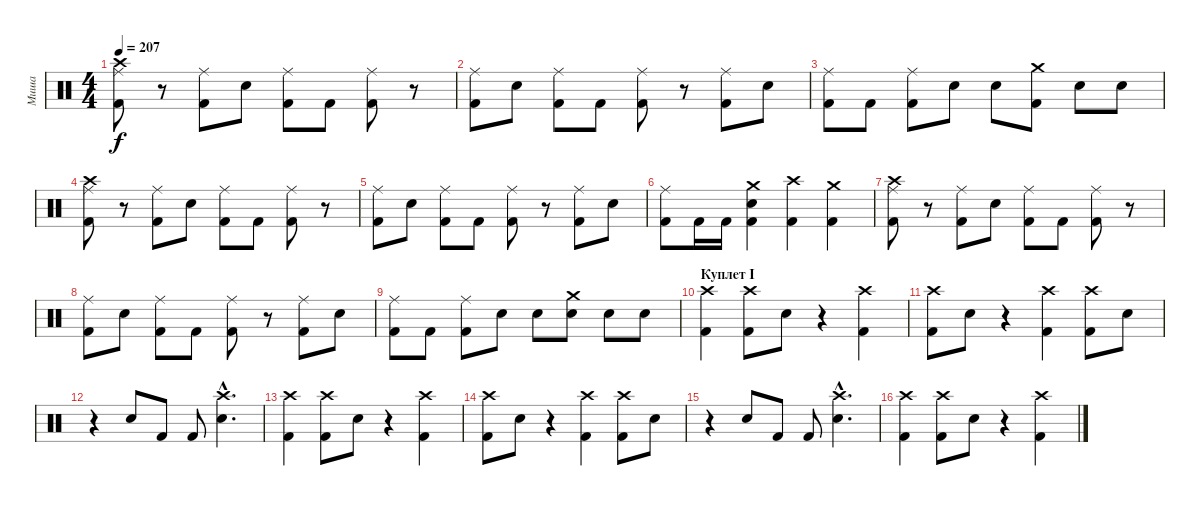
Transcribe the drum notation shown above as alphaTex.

\track ("Миша" "Миша") {instrument percussion}
\staff {score}
\articulation defaults
\ts (4 4)
\tempo 207
\clef neutral
\ks c
("Kick (hit) 2" "Ride (middle)" "Crash high (hit)").8{dy f} r.8 ("Kick (hit) 2" "Ride (middle)").8 "Snare (hit) 2".8 ("Kick (hit) 2" "Ride (middle)").8 "Kick (hit) 2".8 ("Kick (hit) 2" "Ride (middle)").8 r.8 |
("Kick (hit) 2" "Ride (middle)").8 "Snare (hit) 2".8 ("Kick (hit) 2" "Ride (middle)").8 "Kick (hit) 2".8 ("Kick (hit) 2" "Ride (middle)").8 r.8 ("Kick (hit) 2" "Ride (middle)").8 "Snare (hit) 2".8 |
("Kick (hit) 2" "Ride (middle)").8 "Kick (hit) 2".8 ("Kick (hit) 2" "Ride (middle)").8 "Snare (hit) 2".8 "Snare (hit) 2".8 ("Kick (hit) 2" "Crash medium (hit)").8 "Snare (hit) 2".8 "Snare (hit) 2".8 |
("Kick (hit) 2" "Ride (middle)" "Crash high (hit)").8 r.8 ("Kick (hit) 2" "Ride (middle)").8 "Snare (hit) 2".8 ("Kick (hit) 2" "Ride (middle)").8 "Kick (hit) 2".8 ("Kick (hit) 2" "Ride (middle)").8 r.8 |
("Kick (hit) 2" "Ride (middle)").8 "Snare (hit) 2".8 ("Kick (hit) 2" "Ride (middle)").8 "Kick (hit) 2".8 ("Kick (hit) 2" "Ride (middle)").8 r.8 ("Kick (hit) 2" "Ride (middle)").8 "Snare (hit) 2".8 |
("Kick (hit) 2" "Ride (middle)").8 "Kick (hit) 2".16 "Kick (hit) 2".16 ("Kick (hit) 2" "Snare (hit) 2" "Crash medium (hit)").4 ("Kick (hit) 2" "Crash high (hit)").4 ("Kick (hit) 2" "Crash medium (hit)").4 |
("Kick (hit) 2" "Ride (middle)" "Crash high (hit)").8 r.8 ("Kick (hit) 2" "Ride (middle)").8 "Snare (hit) 2".8 ("Kick (hit) 2" "Ride (middle)").8 "Kick (hit) 2".8 ("Kick (hit) 2" "Ride (middle)").8 r.8 |
("Kick (hit) 2" "Ride (middle)").8 "Snare (hit) 2".8 ("Kick (hit) 2" "Ride (middle)").8 "Kick (hit) 2".8 ("Kick (hit) 2" "Ride (middle)").8 r.8 ("Kick (hit) 2" "Ride (middle)").8 "Snare (hit) 2".8 |
("Kick (hit) 2" "Ride (middle)").8 "Kick (hit) 2".8 ("Kick (hit) 2" "Ride (middle)").8 "Snare (hit) 2".8 "Snare (hit) 2".8 ("Snare (hit) 2" "Crash medium (hit)").8 "Snare (hit) 2".8 "Snare (hit) 2".8 |
\section ("" "Куплет I")
("Kick (hit) 2" "Crash high (hit)").4 ("Kick (hit) 2" "Crash high (hit)").8 "Snare (hit) 2".8 r.4 ("Kick (hit) 2" "Crash high (hit)").4 |
("Kick (hit) 2" "Crash high (hit)").8 "Snare (hit) 2".8 r.4 ("Kick (hit) 2" "Crash high (hit)").4 ("Kick (hit) 2" "Crash high (hit)").8 "Snare (hit) 2".8 |
r.4 "Snare (hit) 2".8 "Kick (hit) 2".8 "Kick (hit) 2".8 ("Snare (hit) 2"{hac} "Crash high (hit)"{hac}).4{d} |
("Kick (hit) 2" "Crash high (hit)").4 ("Kick (hit) 2" "Crash high (hit)").8 "Snare (hit) 2".8 r.4 ("Kick (hit) 2" "Crash high (hit)").4 |
("Kick (hit) 2" "Crash high (hit)").8 "Snare (hit) 2".8 r.4 ("Kick (hit) 2" "Crash high (hit)").4 ("Kick (hit) 2" "Crash high (hit)").8 "Snare (hit) 2".8 |
r.4 "Snare (hit) 2".8 "Kick (hit) 2".8 "Kick (hit) 2".8 ("Snare (hit) 2"{hac} "Crash high (hit)"{hac}).4{d} |
("Kick (hit) 2" "Crash high (hit)").4 ("Kick (hit) 2" "Crash high (hit)").8 "Snare (hit) 2".8 r.4 ("Kick (hit) 2" "Crash high (hit)").4
